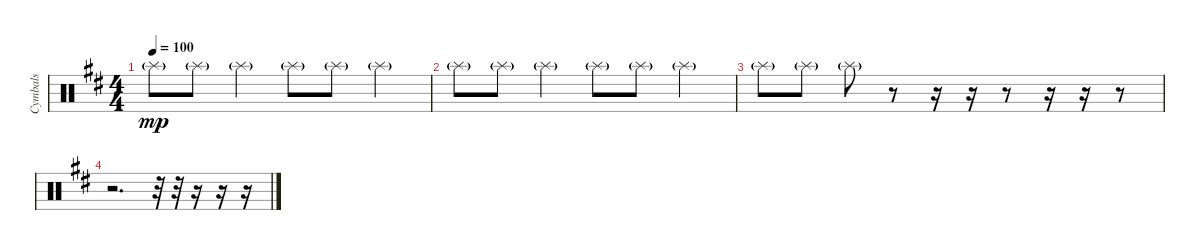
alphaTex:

\track ("Cymbals" "Cymbals") {instrument percussion}
\staff {score}
\articulation defaults
\ts (4 4)
\tempo 100
\clef neutral
\ks d "Splash (hit)"{g}.8{dy mp} "Splash (hit)"{g}.8 "Splash (hit)"{g}.4 "Splash (hit)"{g}.8 "Splash (hit)"{g}.8 "Splash (hit)"{g}.4
|
"Splash (hit)"{g}.8 "Splash (hit)"{g}.8 "Splash (hit)"{g}.4 "Splash (hit)"{g}.8 "Splash (hit)"{g}.8 "Splash (hit)"{g}.4 |
"Splash (hit)"{g}.8 "Splash (hit)"{g}.8 "Splash (hit)"{g}.8 r.8 r.16 r.16 r.8 r.16 r.16 r.8 |
r.2{d} r.32 r.32 r.16 r.16 r.16
